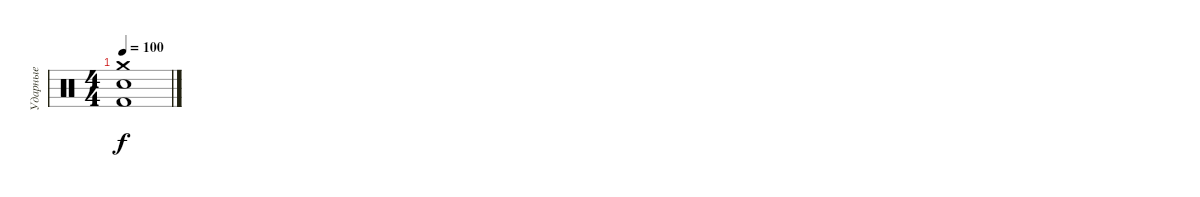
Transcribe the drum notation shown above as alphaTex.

\track ("Ударные" "Ударные") {instrument percussion}
\staff {score}
\articulation defaults
\ts (4 4)
\tempo 100
\clef neutral
\ks c
("Crash medium (hit)" "Electric Snare (hit)" "Kick (hit) 2").1{dy f}
